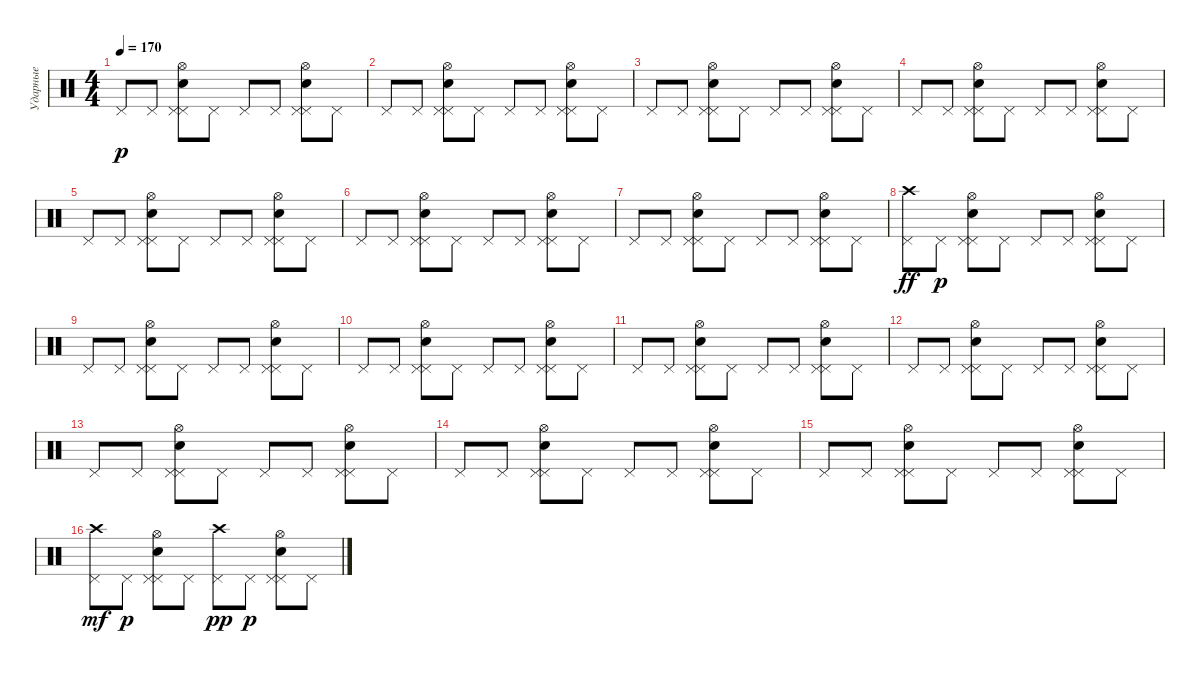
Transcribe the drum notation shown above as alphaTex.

\track ("Ударные" "Ударные") {instrument percussion}
\staff {score}
\articulation defaults
\ts (4 4)
\tempo 170
\clef neutral
\ks c "Pedal Hi-Hat (hit)".8{dy p} "Pedal Hi-Hat (hit)".8
("Pedal Hi-Hat (hit)" "Snare (hit) 2" "Pedal Hi-Hat (hit)" "Hi-Hat (open)").8 "Pedal Hi-Hat (hit)".8 "Pedal Hi-Hat (hit)".8 "Pedal Hi-Hat (hit)".8 ("Pedal Hi-Hat (hit)" "Snare (hit) 2" "Pedal Hi-Hat (hit)" "Hi-Hat (open)").8 "Pedal Hi-Hat (hit)".8 |
"Pedal Hi-Hat (hit)".8 "Pedal Hi-Hat (hit)".8 ("Pedal Hi-Hat (hit)" "Snare (hit) 2" "Pedal Hi-Hat (hit)" "Hi-Hat (open)").8 "Pedal Hi-Hat (hit)".8 "Pedal Hi-Hat (hit)".8 "Pedal Hi-Hat (hit)".8 ("Pedal Hi-Hat (hit)" "Snare (hit) 2" "Pedal Hi-Hat (hit)" "Hi-Hat (open)").8 "Pedal Hi-Hat (hit)".8 |
"Pedal Hi-Hat (hit)".8 "Pedal Hi-Hat (hit)".8 ("Pedal Hi-Hat (hit)" "Snare (hit) 2" "Pedal Hi-Hat (hit)" "Hi-Hat (open)").8 "Pedal Hi-Hat (hit)".8 "Pedal Hi-Hat (hit)".8 "Pedal Hi-Hat (hit)".8 ("Pedal Hi-Hat (hit)" "Snare (hit) 2" "Pedal Hi-Hat (hit)" "Hi-Hat (open)").8 "Pedal Hi-Hat (hit)".8 |
"Pedal Hi-Hat (hit)".8 "Pedal Hi-Hat (hit)".8 ("Pedal Hi-Hat (hit)" "Snare (hit) 2" "Pedal Hi-Hat (hit)" "Hi-Hat (open)").8 "Pedal Hi-Hat (hit)".8 "Pedal Hi-Hat (hit)".8 "Pedal Hi-Hat (hit)".8 ("Pedal Hi-Hat (hit)" "Snare (hit) 2" "Pedal Hi-Hat (hit)" "Hi-Hat (open)").8 "Pedal Hi-Hat (hit)".8 |
"Pedal Hi-Hat (hit)".8 "Pedal Hi-Hat (hit)".8 ("Pedal Hi-Hat (hit)" "Snare (hit) 2" "Pedal Hi-Hat (hit)" "Hi-Hat (open)").8 "Pedal Hi-Hat (hit)".8 "Pedal Hi-Hat (hit)".8 "Pedal Hi-Hat (hit)".8 ("Pedal Hi-Hat (hit)" "Snare (hit) 2" "Pedal Hi-Hat (hit)" "Hi-Hat (open)").8 "Pedal Hi-Hat (hit)".8 |
"Pedal Hi-Hat (hit)".8 "Pedal Hi-Hat (hit)".8 ("Pedal Hi-Hat (hit)" "Snare (hit) 2" "Pedal Hi-Hat (hit)" "Hi-Hat (open)").8 "Pedal Hi-Hat (hit)".8 "Pedal Hi-Hat (hit)".8 "Pedal Hi-Hat (hit)".8 ("Pedal Hi-Hat (hit)" "Snare (hit) 2" "Pedal Hi-Hat (hit)" "Hi-Hat (open)").8 "Pedal Hi-Hat (hit)".8 |
"Pedal Hi-Hat (hit)".8 "Pedal Hi-Hat (hit)".8 ("Pedal Hi-Hat (hit)" "Snare (hit) 2" "Pedal Hi-Hat (hit)" "Hi-Hat (open)").8 "Pedal Hi-Hat (hit)".8 "Pedal Hi-Hat (hit)".8 "Pedal Hi-Hat (hit)".8 ("Pedal Hi-Hat (hit)" "Snare (hit) 2" "Pedal Hi-Hat (hit)" "Hi-Hat (open)").8 "Pedal Hi-Hat (hit)".8 |
("Pedal Hi-Hat (hit)" "Crash high (hit)").8{dy ff} "Pedal Hi-Hat (hit)".8{dy p} ("Pedal Hi-Hat (hit)" "Snare (hit) 2" "Pedal Hi-Hat (hit)" "Hi-Hat (open)").8 "Pedal Hi-Hat (hit)".8 "Pedal Hi-Hat (hit)".8 "Pedal Hi-Hat (hit)".8 ("Pedal Hi-Hat (hit)" "Snare (hit) 2" "Pedal Hi-Hat (hit)" "Hi-Hat (open)").8 "Pedal Hi-Hat (hit)".8 |
"Pedal Hi-Hat (hit)".8 "Pedal Hi-Hat (hit)".8 ("Pedal Hi-Hat (hit)" "Snare (hit) 2" "Pedal Hi-Hat (hit)" "Hi-Hat (open)").8 "Pedal Hi-Hat (hit)".8 "Pedal Hi-Hat (hit)".8 "Pedal Hi-Hat (hit)".8 ("Pedal Hi-Hat (hit)" "Snare (hit) 2" "Pedal Hi-Hat (hit)" "Hi-Hat (open)").8 "Pedal Hi-Hat (hit)".8 |
"Pedal Hi-Hat (hit)".8 "Pedal Hi-Hat (hit)".8 ("Pedal Hi-Hat (hit)" "Snare (hit) 2" "Pedal Hi-Hat (hit)" "Hi-Hat (open)").8 "Pedal Hi-Hat (hit)".8 "Pedal Hi-Hat (hit)".8 "Pedal Hi-Hat (hit)".8 ("Pedal Hi-Hat (hit)" "Snare (hit) 2" "Pedal Hi-Hat (hit)" "Hi-Hat (open)").8 "Pedal Hi-Hat (hit)".8 |
"Pedal Hi-Hat (hit)".8 "Pedal Hi-Hat (hit)".8 ("Pedal Hi-Hat (hit)" "Snare (hit) 2" "Pedal Hi-Hat (hit)" "Hi-Hat (open)").8 "Pedal Hi-Hat (hit)".8 "Pedal Hi-Hat (hit)".8 "Pedal Hi-Hat (hit)".8 ("Pedal Hi-Hat (hit)" "Snare (hit) 2" "Pedal Hi-Hat (hit)" "Hi-Hat (open)").8 "Pedal Hi-Hat (hit)".8 |
"Pedal Hi-Hat (hit)".8 "Pedal Hi-Hat (hit)".8 ("Pedal Hi-Hat (hit)" "Snare (hit) 2" "Pedal Hi-Hat (hit)" "Hi-Hat (open)").8 "Pedal Hi-Hat (hit)".8 "Pedal Hi-Hat (hit)".8 "Pedal Hi-Hat (hit)".8 ("Pedal Hi-Hat (hit)" "Snare (hit) 2" "Pedal Hi-Hat (hit)" "Hi-Hat (open)").8 "Pedal Hi-Hat (hit)".8 |
"Pedal Hi-Hat (hit)".8 "Pedal Hi-Hat (hit)".8 ("Pedal Hi-Hat (hit)" "Snare (hit) 2" "Pedal Hi-Hat (hit)" "Hi-Hat (open)").8 "Pedal Hi-Hat (hit)".8 "Pedal Hi-Hat (hit)".8 "Pedal Hi-Hat (hit)".8 ("Pedal Hi-Hat (hit)" "Snare (hit) 2" "Pedal Hi-Hat (hit)" "Hi-Hat (open)").8 "Pedal Hi-Hat (hit)".8 |
"Pedal Hi-Hat (hit)".8 "Pedal Hi-Hat (hit)".8 ("Pedal Hi-Hat (hit)" "Snare (hit) 2" "Pedal Hi-Hat (hit)" "Hi-Hat (open)").8 "Pedal Hi-Hat (hit)".8 "Pedal Hi-Hat (hit)".8 "Pedal Hi-Hat (hit)".8 ("Pedal Hi-Hat (hit)" "Snare (hit) 2" "Pedal Hi-Hat (hit)" "Hi-Hat (open)").8 "Pedal Hi-Hat (hit)".8 |
"Pedal Hi-Hat (hit)".8 "Pedal Hi-Hat (hit)".8 ("Pedal Hi-Hat (hit)" "Snare (hit) 2" "Pedal Hi-Hat (hit)" "Hi-Hat (open)").8 "Pedal Hi-Hat (hit)".8 "Pedal Hi-Hat (hit)".8 "Pedal Hi-Hat (hit)".8 ("Pedal Hi-Hat (hit)" "Snare (hit) 2" "Pedal Hi-Hat (hit)" "Hi-Hat (open)").8 "Pedal Hi-Hat (hit)".8 |
("Pedal Hi-Hat (hit)" "Crash high (hit)").8{dy mf} "Pedal Hi-Hat (hit)".8{dy p} ("Pedal Hi-Hat (hit)" "Snare (hit) 2" "Pedal Hi-Hat (hit)" "Hi-Hat (open)").8 "Pedal Hi-Hat (hit)".8 ("Pedal Hi-Hat (hit)" "Crash high (hit)").8{dy pp} "Pedal Hi-Hat (hit)".8{dy p} ("Pedal Hi-Hat (hit)" "Snare (hit) 2" "Pedal Hi-Hat (hit)" "Hi-Hat (open)").8 "Pedal Hi-Hat (hit)".8
